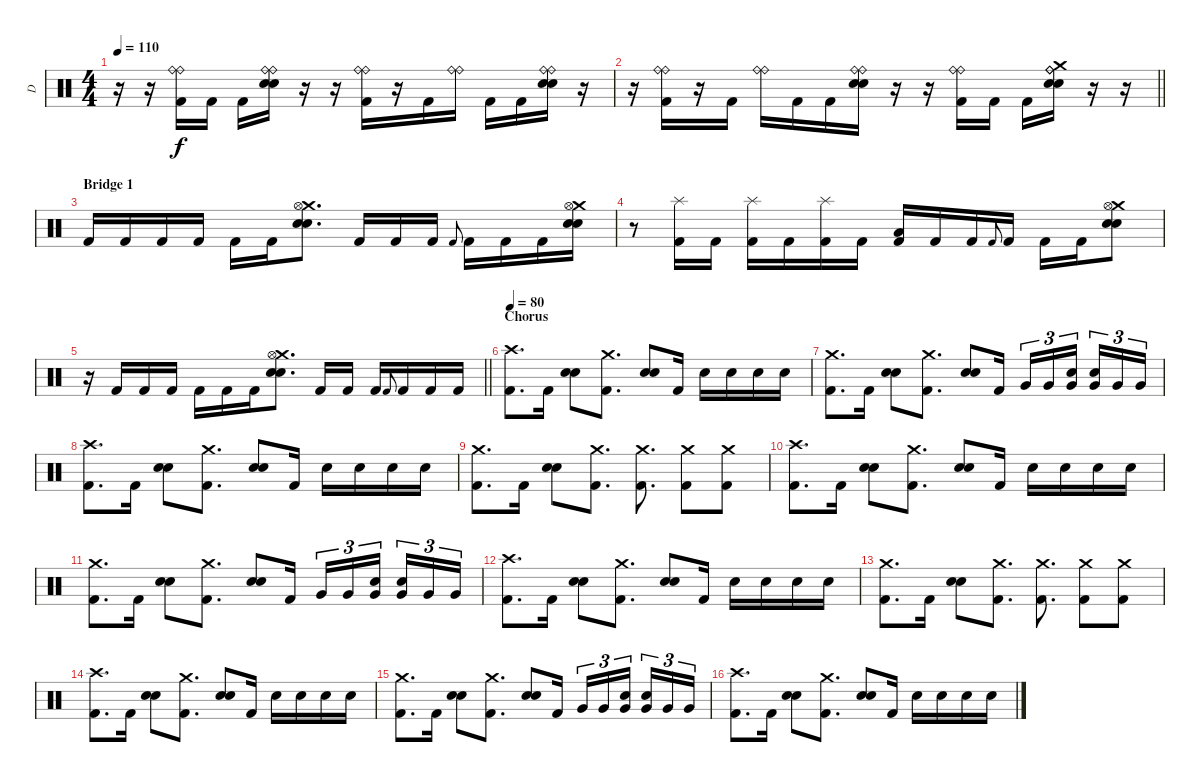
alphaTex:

\track ("D" "D") {instrument percussion}
\staff {score}
\articulation defaults
\ts (4 4)
\tempo 110
\clef neutral
\ks c
r.16{dy f} r.16 ("Ride (bell)" "Ride (bell)" "Kick (hit) 2").16 "Kick (hit) 2".16 "Kick (hit) 2".16 ("Electric Snare (hit)" "Electric Snare (hit)" "Ride (bell)" "Ride (bell)").16 r.16 r.16 ("Ride (bell)" "Ride (bell)" "Kick (hit) 2").16 r.16 "Kick (hit) 2".16 ("Ride (bell)" "Ride (bell)").16 "Kick (hit) 2".16 "Kick (hit) 2".16 ("Electric Snare (hit)" "Electric Snare (hit)" "Ride (bell)" "Ride (bell)").16 r.16 |
\barLineRight lightlight
r.16 ("Ride (bell)" "Ride (bell)" "Kick (hit) 2").16 r.16 "Kick (hit) 2".16 ("Ride (bell)" "Ride (bell)").16 "Kick (hit) 2".16 "Kick (hit) 2".16 ("Electric Snare (hit)" "Electric Snare (hit)" "Ride (bell)" "Ride (bell)").16 r.16 r.16 ("Ride (bell)" "Ride (bell)" "Kick (hit) 2").16 "Kick (hit) 2".16 "Kick (hit) 2".16 ("Crash medium (hit)" "Electric Snare (hit)" "Electric Snare (hit)" "Ride (bell)" "Ride (bell)").16 r.16 r.16 |
\section ("" "Bridge 1")
"Kick (hit) 2".16 "Kick (hit) 2".16 "Kick (hit) 2".16 "Kick (hit) 2".16 "Kick (hit) 2".16 "Kick (hit) 2".16 ("Crash medium (hit)" "Electric Snare (hit)" "Electric Snare (hit)" "Hi-Hat (open)").8{d} "Kick (hit) 2".16 "Kick (hit) 2".16 "Kick (hit) 2".16 "Kick (hit) 2".8{gr onbeat} "Kick (hit) 2".16 "Kick (hit) 2".16 "Kick (hit) 2".16 ("Crash medium (hit)" "Electric Snare (hit)" "Electric Snare (hit)" "Hi-Hat (open)").16 |
r.8 ("Splash (hit)" "Kick (hit) 2").16 "Kick (hit) 2".16 ("Splash (hit)" "Kick (hit) 2").16 "Kick (hit) 2".16 ("Splash (hit)" "Kick (hit) 2").16 "Kick (hit) 2".16 ("Low Tom (hit)" "Kick (hit) 2").16 "Kick (hit) 2".16 "Kick (hit) 2".16 "Kick (hit) 2".8{gr onbeat} "Kick (hit) 2".16 "Kick (hit) 2".16 "Kick (hit) 2".16 ("Crash medium (hit)" "Electric Snare (hit)" "Electric Snare (hit)" "Hi-Hat (open)").8 |
\barLineRight lightlight
r.16 "Kick (hit) 2".16 "Kick (hit) 2".16 "Kick (hit) 2".16 "Kick (hit) 2".16 "Kick (hit) 2".16 "Kick (hit) 2".16 ("Crash medium (hit)" "Electric Snare (hit)" "Electric Snare (hit)" "Hi-Hat (open)").8{d} "Kick (hit) 2".16 "Kick (hit) 2".16 "Kick (hit) 2".16 "Kick (hit) 2".8{gr onbeat} "Kick (hit) 2".16 "Kick (hit) 2".16 "Kick (hit) 2".16 |
\section ("" "Chorus")
\tempo 80
("Crash high (hit)" "Kick (hit) 2").8{d} "Kick (hit) 2".16 ("Electric Snare (hit)" "Electric Snare (hit)").8 ("Crash medium (hit)" "Kick (hit) 2").8{d} ("Electric Snare (hit)" "Electric Snare (hit)").8 "Kick (hit) 2".16 "Electric Snare (hit)".16 "Electric Snare (hit)".16 "Electric Snare (hit)".16 "Electric Snare (hit)".16 |
("Crash medium (hit)" "Kick (hit) 2").8{d} "Kick (hit) 2".16 ("Electric Snare (hit)" "Electric Snare (hit)").8 ("Crash medium (hit)" "Kick (hit) 2").8{d} ("Electric Snare (hit)" "Electric Snare (hit)").8 "Kick (hit) 2".16 "Very Low Tom (hit)".16{tu (3 2)} "Very Low Tom (hit)".16{tu (3 2)} ("Electric Snare (hit)" "Very Low Tom (hit)").16{tu (3 2) beam splitsecondary} ("Electric Snare (hit)" "Very Low Tom (hit)").16{tu (3 2)} "Very Low Tom (hit)".16{tu (3 2)} "Very Low Tom (hit)".16{tu (3 2)} |
("Crash high (hit)" "Kick (hit) 2").8{d} "Kick (hit) 2".16 ("Electric Snare (hit)" "Electric Snare (hit)").8 ("Crash medium (hit)" "Kick (hit) 2").8{d} ("Electric Snare (hit)" "Electric Snare (hit)").8 "Kick (hit) 2".16 "Electric Snare (hit)".16 "Electric Snare (hit)".16 "Electric Snare (hit)".16 "Electric Snare (hit)".16 |
("Crash medium (hit)" "Kick (hit) 2").8{d} "Kick (hit) 2".16 ("Electric Snare (hit)" "Electric Snare (hit)").8 ("Crash medium (hit)" "Kick (hit) 2").8{d} ("Crash medium (hit)" "Kick (hit) 2").8{d} ("Crash medium (hit)" "Kick (hit) 2").8 ("Crash medium (hit)" "Kick (hit) 2").8 |
("Crash high (hit)" "Kick (hit) 2").8{d} "Kick (hit) 2".16 ("Electric Snare (hit)" "Electric Snare (hit)").8 ("Crash medium (hit)" "Kick (hit) 2").8{d} ("Electric Snare (hit)" "Electric Snare (hit)").8 "Kick (hit) 2".16 "Electric Snare (hit)".16 "Electric Snare (hit)".16 "Electric Snare (hit)".16 "Electric Snare (hit)".16 |
("Crash medium (hit)" "Kick (hit) 2").8{d} "Kick (hit) 2".16 ("Electric Snare (hit)" "Electric Snare (hit)").8 ("Crash medium (hit)" "Kick (hit) 2").8{d} ("Electric Snare (hit)" "Electric Snare (hit)").8 "Kick (hit) 2".16 "Very Low Tom (hit)".16{tu (3 2)} "Very Low Tom (hit)".16{tu (3 2)} ("Electric Snare (hit)" "Very Low Tom (hit)").16{tu (3 2) beam splitsecondary} ("Electric Snare (hit)" "Very Low Tom (hit)").16{tu (3 2)} "Very Low Tom (hit)".16{tu (3 2)} "Very Low Tom (hit)".16{tu (3 2)} |
("Crash high (hit)" "Kick (hit) 2").8{d} "Kick (hit) 2".16 ("Electric Snare (hit)" "Electric Snare (hit)").8 ("Crash medium (hit)" "Kick (hit) 2").8{d} ("Electric Snare (hit)" "Electric Snare (hit)").8 "Kick (hit) 2".16 "Electric Snare (hit)".16 "Electric Snare (hit)".16 "Electric Snare (hit)".16 "Electric Snare (hit)".16 |
("Crash medium (hit)" "Kick (hit) 2").8{d} "Kick (hit) 2".16 ("Electric Snare (hit)" "Electric Snare (hit)").8 ("Crash medium (hit)" "Kick (hit) 2").8{d} ("Crash medium (hit)" "Kick (hit) 2").8{d} ("Crash medium (hit)" "Kick (hit) 2").8 ("Crash medium (hit)" "Kick (hit) 2").8 |
("Crash high (hit)" "Kick (hit) 2").8{d} "Kick (hit) 2".16 ("Electric Snare (hit)" "Electric Snare (hit)").8 ("Crash medium (hit)" "Kick (hit) 2").8{d} ("Electric Snare (hit)" "Electric Snare (hit)").8 "Kick (hit) 2".16 "Electric Snare (hit)".16 "Electric Snare (hit)".16 "Electric Snare (hit)".16 "Electric Snare (hit)".16 |
("Crash medium (hit)" "Kick (hit) 2").8{d} "Kick (hit) 2".16 ("Electric Snare (hit)" "Electric Snare (hit)").8 ("Crash medium (hit)" "Kick (hit) 2").8{d} ("Electric Snare (hit)" "Electric Snare (hit)").8 "Kick (hit) 2".16 "Very Low Tom (hit)".16{tu (3 2)} "Very Low Tom (hit)".16{tu (3 2)} ("Electric Snare (hit)" "Very Low Tom (hit)").16{tu (3 2) beam splitsecondary} ("Electric Snare (hit)" "Very Low Tom (hit)").16{tu (3 2)} "Very Low Tom (hit)".16{tu (3 2)} "Very Low Tom (hit)".16{tu (3 2)} |
("Crash high (hit)" "Kick (hit) 2").8{d} "Kick (hit) 2".16 ("Electric Snare (hit)" "Electric Snare (hit)").8 ("Crash medium (hit)" "Kick (hit) 2").8{d} ("Electric Snare (hit)" "Electric Snare (hit)").8 "Kick (hit) 2".16 "Electric Snare (hit)".16 "Electric Snare (hit)".16 "Electric Snare (hit)".16 "Electric Snare (hit)".16
